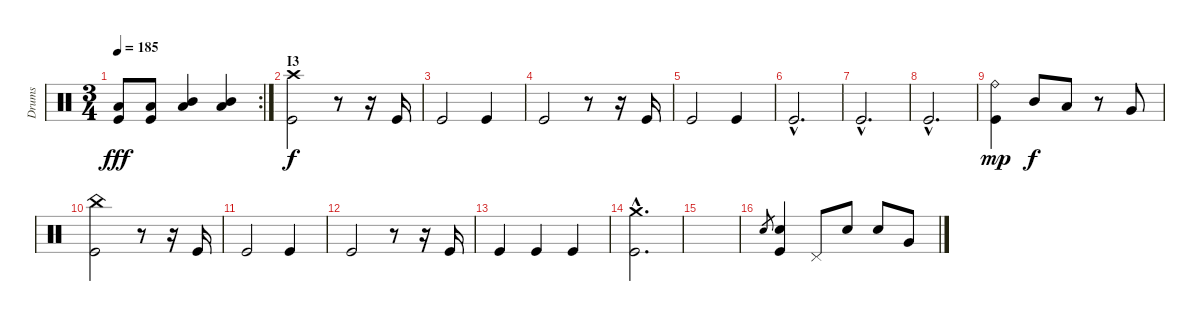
\track ("Drums" "Drums") {instrument percussion}
\staff {score}
\articulation defaults
\rc 2
\ts (3 4)
\tempo 185
\clef neutral
\ks c
("Low Floor Tom (hit)" "Kick (hit)").8{dy fff} ("Low Floor Tom (hit)" "Kick (hit)").8 ("Mid Tom (hit)" "Low Floor Tom (hit)").4 ("Mid Tom (hit)" "Low Floor Tom (hit)").4 |
\section ("" "I3")
("Crash high (hit)" "Kick (hit)").2{dy f} r.8 r.16 "Kick (hit)".16 |
"Kick (hit)".2 "Kick (hit)".4 |
"Kick (hit)".2 r.8 r.16 "Kick (hit)".16 |
"Kick (hit)".2 "Kick (hit)".4 |
"Kick (hit)"{hac}.2{d} |
"Kick (hit)"{hac}.2{d} |
"Kick (hit)"{hac}.2{d} |
("Ride (bell)" "Kick (hit)").4{dy mp} "Mid Tom (hit)".8{dy f} "Low Tom (hit)".8 r.8 "Very Low Tom (hit)".8 |
("China (hit)" "Kick (hit)").2 r.8 r.16 "Kick (hit)".16 |
"Kick (hit)".2 "Kick (hit)".4 |
"Kick (hit)".2 r.8 r.16 "Kick (hit)".16 |
"Kick (hit)".4 "Kick (hit)".4 "Kick (hit)".4 |
("Crash medium (hit)"{hac} "Kick (hit)"{hac}).2{d} |
|
"Snare (hit) 2".8{gr} ("Snare (hit) 2" "Kick (hit)").4 "Pedal Hi-Hat (hit)".8 "Snare (hit) 2".8 "Snare (hit) 2".8 "Very Low Tom (hit)".8
